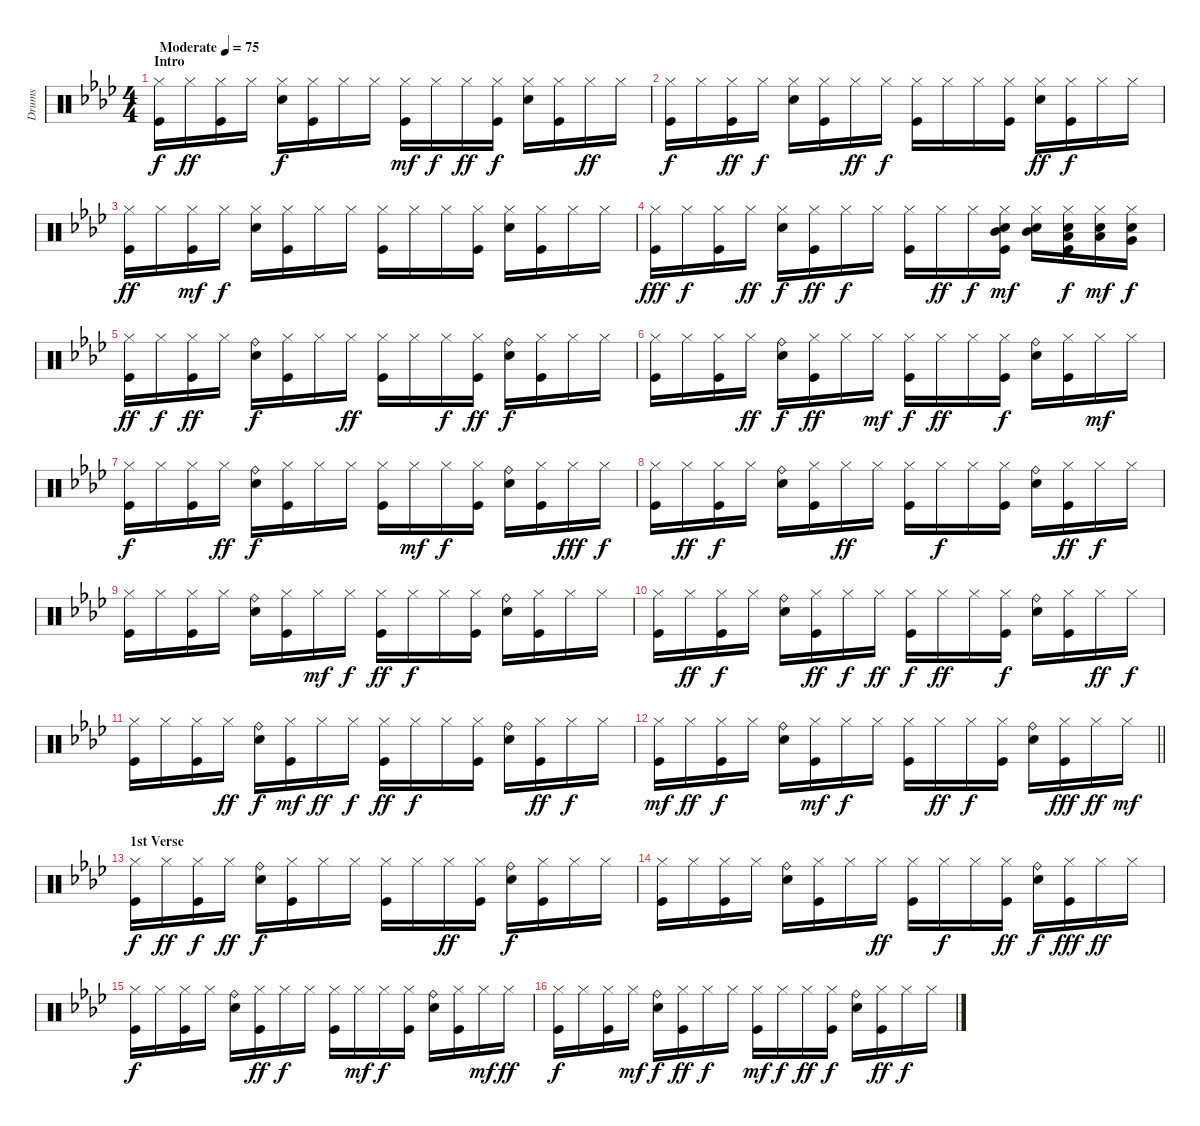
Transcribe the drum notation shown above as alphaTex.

\track ("Drums" "Drums") {instrument percussion}
\staff {score}
\articulation defaults
\ts (4 4)
\section ("" "Intro")
\tempo (75 "Moderate")
\clef neutral
\ks fminor
("Hi-Hat (closed)" "Kick (hit)").16{dy f balance 8} "Hi-Hat (closed)".16{dy ff} ("Hi-Hat (closed)" "Kick (hit)").16 "Hi-Hat (closed)".16 ("Hi-Hat (closed)" "Electric Snare (hit)").16{dy f} ("Hi-Hat (closed)" "Kick (hit)").16 "Hi-Hat (closed)".16 "Hi-Hat (closed)".16 ("Hi-Hat (closed)" "Kick (hit)").16{dy mf} "Hi-Hat (closed)".16{dy f} "Hi-Hat (closed)".16{dy ff} ("Hi-Hat (closed)" "Kick (hit)").16{dy f} ("Hi-Hat (closed)" "Electric Snare (hit)").16 ("Hi-Hat (closed)" "Kick (hit)").16 "Hi-Hat (closed)".16{dy ff} "Hi-Hat (closed)".16 |
("Hi-Hat (closed)" "Kick (hit)").16{dy f} "Hi-Hat (closed)".16 ("Hi-Hat (closed)" "Kick (hit)").16{dy ff} "Hi-Hat (closed)".16{dy f} ("Hi-Hat (closed)" "Electric Snare (hit)").16 ("Hi-Hat (closed)" "Kick (hit)").16 "Hi-Hat (closed)".16{dy ff} "Hi-Hat (closed)".16{dy f} ("Hi-Hat (closed)" "Kick (hit)").16 "Hi-Hat (closed)".16 "Hi-Hat (closed)".16 ("Hi-Hat (closed)" "Kick (hit)").16 ("Hi-Hat (closed)" "Electric Snare (hit)").16{dy ff} ("Hi-Hat (closed)" "Kick (hit)").16{dy f} "Hi-Hat (closed)".16 "Hi-Hat (closed)".16 |
("Hi-Hat (closed)" "Kick (hit)").16{dy ff} "Hi-Hat (closed)".16 ("Hi-Hat (closed)" "Kick (hit)").16{dy mf} "Hi-Hat (closed)".16{dy f} ("Hi-Hat (closed)" "Electric Snare (hit)").16 ("Hi-Hat (closed)" "Kick (hit)").16 "Hi-Hat (closed)".16 "Hi-Hat (closed)".16 ("Hi-Hat (closed)" "Kick (hit)").16 "Hi-Hat (closed)".16 "Hi-Hat (closed)".16 ("Hi-Hat (closed)" "Kick (hit)").16 ("Hi-Hat (closed)" "Electric Snare (hit)").16 ("Hi-Hat (closed)" "Kick (hit)").16 "Hi-Hat (closed)".16 "Hi-Hat (closed)".16 |
("Hi-Hat (closed)" "Kick (hit)").16{dy fff} "Hi-Hat (closed)".16{dy f} ("Hi-Hat (closed)" "Kick (hit)").16 "Hi-Hat (closed)".16{dy ff} ("Hi-Hat (closed)" "Electric Snare (hit)").16{dy f} ("Hi-Hat (closed)" "Kick (hit)").16{dy ff} "Hi-Hat (closed)".16{dy f} "Hi-Hat (closed)".16 ("Hi-Hat (closed)" "Kick (hit)").16 "Hi-Hat (closed)".16{dy ff} "Hi-Hat (closed)".16{dy f} ("Hi-Hat (closed)" "Electric Snare (hit)" "Kick (hit)" "Mid Tom (hit)").16{dy mf} ("Hi-Hat (closed)" "Electric Snare (hit)" "Mid Tom (hit)").16 ("Hi-Hat (closed)" "Electric Snare (hit)" "Kick (hit)" "Low Tom (hit)").16{dy f} ("Hi-Hat (closed)" "Electric Snare (hit)" "Low Tom (hit)").16{dy mf} ("Hi-Hat (closed)" "Electric Snare (hit)" "Very Low Tom (hit)").16{dy f} |
("Hi-Hat (closed)" "Kick (hit)").16{dy ff} "Hi-Hat (closed)".16{dy f} ("Hi-Hat (closed)" "Kick (hit)").16{dy ff} "Hi-Hat (closed)".16 ("Ride (bell)" "Electric Snare (hit)").16{dy f} ("Hi-Hat (closed)" "Kick (hit)").16 "Hi-Hat (closed)".16 "Hi-Hat (closed)".16{dy ff} ("Hi-Hat (closed)" "Kick (hit)").16 "Hi-Hat (closed)".16 "Hi-Hat (closed)".16{dy f} ("Hi-Hat (closed)" "Kick (hit)").16{dy ff} ("Ride (bell)" "Electric Snare (hit)").16{dy f} ("Hi-Hat (closed)" "Kick (hit)").16 "Hi-Hat (closed)".16 "Hi-Hat (closed)".16 |
("Hi-Hat (closed)" "Kick (hit)").16 "Hi-Hat (closed)".16 ("Hi-Hat (closed)" "Kick (hit)").16 "Hi-Hat (closed)".16{dy ff} ("Ride (bell)" "Electric Snare (hit)").16{dy f} ("Hi-Hat (closed)" "Kick (hit)").16{dy ff} "Hi-Hat (closed)".16 "Hi-Hat (closed)".16{dy mf} ("Hi-Hat (closed)" "Kick (hit)").16{dy f} "Hi-Hat (closed)".16{dy ff} "Hi-Hat (closed)".16 ("Hi-Hat (closed)" "Kick (hit)").16{dy f} ("Ride (bell)" "Electric Snare (hit)").16 ("Hi-Hat (closed)" "Kick (hit)").16 "Hi-Hat (closed)".16{dy mf} "Hi-Hat (closed)".16 |
("Hi-Hat (closed)" "Kick (hit)").16{dy f} "Hi-Hat (closed)".16 ("Hi-Hat (closed)" "Kick (hit)").16 "Hi-Hat (closed)".16{dy ff} ("Ride (bell)" "Electric Snare (hit)").16{dy f} ("Hi-Hat (closed)" "Kick (hit)").16 "Hi-Hat (closed)".16 "Hi-Hat (closed)".16 ("Hi-Hat (closed)" "Kick (hit)").16 "Hi-Hat (closed)".16{dy mf} "Hi-Hat (closed)".16{dy f} ("Hi-Hat (closed)" "Kick (hit)").16 ("Ride (bell)" "Electric Snare (hit)").16 ("Hi-Hat (closed)" "Kick (hit)").16 "Hi-Hat (closed)".16{dy fff} "Hi-Hat (closed)".16{dy f} |
("Hi-Hat (closed)" "Kick (hit)").16 "Hi-Hat (closed)".16{dy ff} ("Hi-Hat (closed)" "Kick (hit)").16{dy f} "Hi-Hat (closed)".16 ("Ride (bell)" "Electric Snare (hit)").16 ("Hi-Hat (closed)" "Kick (hit)").16 "Hi-Hat (closed)".16{dy ff} "Hi-Hat (closed)".16 ("Hi-Hat (closed)" "Kick (hit)").16 "Hi-Hat (closed)".16{dy f} "Hi-Hat (closed)".16 ("Hi-Hat (closed)" "Kick (hit)").16 ("Ride (bell)" "Electric Snare (hit)").16 ("Hi-Hat (closed)" "Kick (hit)").16{dy ff} "Hi-Hat (closed)".16{dy f} "Hi-Hat (closed)".16 |
("Hi-Hat (closed)" "Kick (hit)").16 "Hi-Hat (closed)".16 ("Hi-Hat (closed)" "Kick (hit)").16 "Hi-Hat (closed)".16 ("Ride (bell)" "Electric Snare (hit)").16 ("Hi-Hat (closed)" "Kick (hit)").16 "Hi-Hat (closed)".16{dy mf} "Hi-Hat (closed)".16{dy f} ("Hi-Hat (closed)" "Kick (hit)").16{dy ff} "Hi-Hat (closed)".16{dy f} "Hi-Hat (closed)".16 ("Hi-Hat (closed)" "Kick (hit)").16 ("Ride (bell)" "Electric Snare (hit)").16 ("Hi-Hat (closed)" "Kick (hit)").16 "Hi-Hat (closed)".16 "Hi-Hat (closed)".16 |
("Hi-Hat (closed)" "Kick (hit)").16 "Hi-Hat (closed)".16{dy ff} ("Hi-Hat (closed)" "Kick (hit)").16{dy f} "Hi-Hat (closed)".16 ("Ride (bell)" "Electric Snare (hit)").16 ("Hi-Hat (closed)" "Kick (hit)").16{dy ff} "Hi-Hat (closed)".16{dy f} "Hi-Hat (closed)".16{dy ff} ("Hi-Hat (closed)" "Kick (hit)").16{dy f} "Hi-Hat (closed)".16{dy ff} "Hi-Hat (closed)".16 ("Hi-Hat (closed)" "Kick (hit)").16{dy f} ("Ride (bell)" "Electric Snare (hit)").16 ("Hi-Hat (closed)" "Kick (hit)").16 "Hi-Hat (closed)".16{dy ff} "Hi-Hat (closed)".16{dy f} |
("Hi-Hat (closed)" "Kick (hit)").16 "Hi-Hat (closed)".16 ("Hi-Hat (closed)" "Kick (hit)").16 "Hi-Hat (closed)".16{dy ff} ("Ride (bell)" "Electric Snare (hit)").16{dy f} ("Hi-Hat (closed)" "Kick (hit)").16{dy mf} "Hi-Hat (closed)".16{dy ff} "Hi-Hat (closed)".16{dy f} ("Hi-Hat (closed)" "Kick (hit)").16{dy ff} "Hi-Hat (closed)".16{dy f} "Hi-Hat (closed)".16 ("Hi-Hat (closed)" "Kick (hit)").16 ("Ride (bell)" "Electric Snare (hit)").16 ("Hi-Hat (closed)" "Kick (hit)").16{dy ff} "Hi-Hat (closed)".16{dy f} "Hi-Hat (closed)".16 |
\barLineRight lightlight
("Hi-Hat (closed)" "Kick (hit)").16{dy mf} "Hi-Hat (closed)".16{dy ff} ("Hi-Hat (closed)" "Kick (hit)").16{dy f} "Hi-Hat (closed)".16 ("Ride (bell)" "Electric Snare (hit)").16 ("Hi-Hat (closed)" "Kick (hit)").16{dy mf} "Hi-Hat (closed)".16{dy f} "Hi-Hat (closed)".16 ("Hi-Hat (closed)" "Kick (hit)").16 "Hi-Hat (closed)".16{dy ff} "Hi-Hat (closed)".16{dy f} ("Hi-Hat (closed)" "Kick (hit)").16 ("Ride (bell)" "Electric Snare (hit)").16 ("Hi-Hat (closed)" "Kick (hit)").16{dy fff} "Hi-Hat (closed)".16{dy ff} "Hi-Hat (closed)".16{dy mf} |
\section ("" "1st Verse")
("Hi-Hat (closed)" "Kick (hit)").16{dy f} "Hi-Hat (closed)".16{dy ff} ("Hi-Hat (closed)" "Kick (hit)").16{dy f} "Hi-Hat (closed)".16{dy ff} ("Ride (bell)" "Electric Snare (hit)").16{dy f} ("Hi-Hat (closed)" "Kick (hit)").16 "Hi-Hat (closed)".16 "Hi-Hat (closed)".16 ("Hi-Hat (closed)" "Kick (hit)").16 "Hi-Hat (closed)".16 "Hi-Hat (closed)".16{dy ff} ("Hi-Hat (closed)" "Kick (hit)").16 ("Ride (bell)" "Electric Snare (hit)").16{dy f} ("Hi-Hat (closed)" "Kick (hit)").16 "Hi-Hat (closed)".16 "Hi-Hat (closed)".16 |
("Hi-Hat (closed)" "Kick (hit)").16 "Hi-Hat (closed)".16 ("Hi-Hat (closed)" "Kick (hit)").16 "Hi-Hat (closed)".16 ("Ride (bell)" "Electric Snare (hit)").16 ("Hi-Hat (closed)" "Kick (hit)").16 "Hi-Hat (closed)".16 "Hi-Hat (closed)".16{dy ff} ("Hi-Hat (closed)" "Kick (hit)").16 "Hi-Hat (closed)".16{dy f} "Hi-Hat (closed)".16 ("Hi-Hat (closed)" "Kick (hit)").16{dy ff} ("Ride (bell)" "Electric Snare (hit)").16{dy f} ("Hi-Hat (closed)" "Kick (hit)").16{dy fff} "Hi-Hat (closed)".16{dy ff} "Hi-Hat (closed)".16 |
("Hi-Hat (closed)" "Kick (hit)").16{dy f} "Hi-Hat (closed)".16 ("Hi-Hat (closed)" "Kick (hit)").16 "Hi-Hat (closed)".16 ("Ride (bell)" "Electric Snare (hit)").16 ("Hi-Hat (closed)" "Kick (hit)").16{dy ff} "Hi-Hat (closed)".16{dy f} "Hi-Hat (closed)".16 ("Hi-Hat (closed)" "Kick (hit)").16 "Hi-Hat (closed)".16{dy mf} "Hi-Hat (closed)".16{dy f} ("Hi-Hat (closed)" "Kick (hit)").16 ("Ride (bell)" "Electric Snare (hit)").16 ("Hi-Hat (closed)" "Kick (hit)").16 "Hi-Hat (closed)".16{dy mf} "Hi-Hat (closed)".16{dy ff} |
("Hi-Hat (closed)" "Kick (hit)").16{dy f} "Hi-Hat (closed)".16 ("Hi-Hat (closed)" "Kick (hit)").16 "Hi-Hat (closed)".16{dy mf} ("Ride (bell)" "Electric Snare (hit)").16{dy f} ("Hi-Hat (closed)" "Kick (hit)").16{dy ff} "Hi-Hat (closed)".16{dy f} "Hi-Hat (closed)".16 ("Hi-Hat (closed)" "Kick (hit)").16{dy mf} "Hi-Hat (closed)".16{dy f} "Hi-Hat (closed)".16{dy ff} ("Hi-Hat (closed)" "Kick (hit)").16{dy f} ("Ride (bell)" "Electric Snare (hit)").16 ("Hi-Hat (closed)" "Kick (hit)").16{dy ff} "Hi-Hat (closed)".16{dy f} "Hi-Hat (closed)".16
